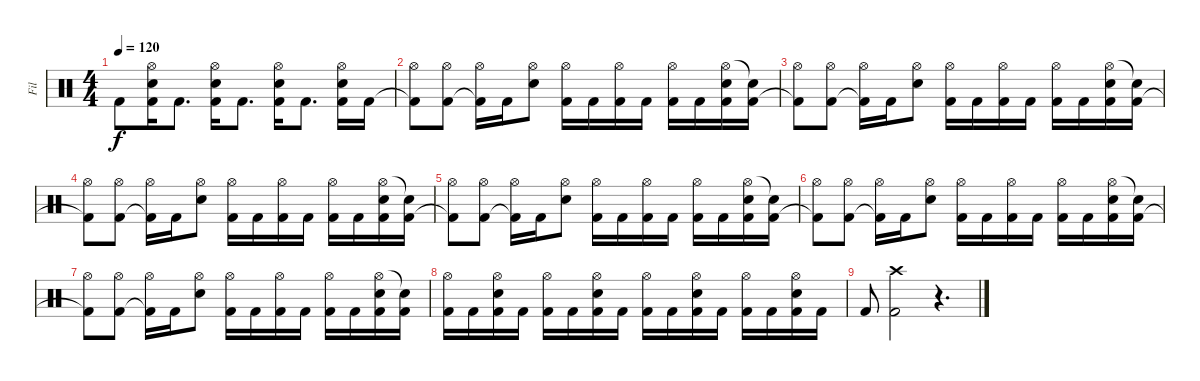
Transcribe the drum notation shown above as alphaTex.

\track ("Fil" "Fil") {instrument percussion}
\staff {score}
\articulation defaults
\ts (4 4)
\tempo 120
\clef neutral
\ks c "Kick (hit) 2".8{dy f}
("Kick (hit) 2" "Snare (hit) 2" "Hi-Hat (open)").16 "Kick (hit) 2".8{d} ("Kick (hit) 2" "Snare (hit) 2" "Hi-Hat (open)").16 "Kick (hit) 2".8{d} ("Kick (hit) 2" "Snare (hit) 2" "Hi-Hat (open)").16 "Kick (hit) 2".8{d} ("Kick (hit) 2" "Snare (hit) 2" "Hi-Hat (open)").16 "Kick (hit) 2".16 |
("Kick (hit) 2"{t} "Hi-Hat (open)").8 ("Kick (hit) 2" "Hi-Hat (open)").8 ("Kick (hit) 2"{t} "Hi-Hat (open)").16 "Kick (hit) 2".16 ("Snare (hit) 2" "Hi-Hat (open)").8 ("Kick (hit) 2" "Hi-Hat (open)").16 "Kick (hit) 2".16 ("Kick (hit) 2" "Hi-Hat (open)").16 "Kick (hit) 2".16 ("Kick (hit) 2" "Hi-Hat (open)").16 "Kick (hit) 2".16 ("Kick (hit) 2" "Hi-Hat (open)" "Snare (hit) 2").16 ("Kick (hit) 2" "Snare (hit) 2"{t}).16 |
("Kick (hit) 2"{t} "Hi-Hat (open)").8 ("Kick (hit) 2" "Hi-Hat (open)").8 ("Kick (hit) 2"{t} "Hi-Hat (open)").16 "Kick (hit) 2".16 ("Snare (hit) 2" "Hi-Hat (open)").8 ("Kick (hit) 2" "Hi-Hat (open)").16 "Kick (hit) 2".16 ("Kick (hit) 2" "Hi-Hat (open)").16 "Kick (hit) 2".16 ("Kick (hit) 2" "Hi-Hat (open)").16 "Kick (hit) 2".16 ("Kick (hit) 2" "Hi-Hat (open)" "Snare (hit) 2").16 ("Kick (hit) 2" "Snare (hit) 2"{t}).16 |
("Kick (hit) 2"{t} "Hi-Hat (open)").8 ("Kick (hit) 2" "Hi-Hat (open)").8 ("Kick (hit) 2"{t} "Hi-Hat (open)").16 "Kick (hit) 2".16 ("Snare (hit) 2" "Hi-Hat (open)").8 ("Kick (hit) 2" "Hi-Hat (open)").16 "Kick (hit) 2".16 ("Kick (hit) 2" "Hi-Hat (open)").16 "Kick (hit) 2".16 ("Kick (hit) 2" "Hi-Hat (open)").16 "Kick (hit) 2".16 ("Kick (hit) 2" "Hi-Hat (open)" "Snare (hit) 2").16 ("Kick (hit) 2" "Snare (hit) 2"{t}).16 |
("Kick (hit) 2"{t} "Hi-Hat (open)").8 ("Kick (hit) 2" "Hi-Hat (open)").8 ("Kick (hit) 2"{t} "Hi-Hat (open)").16 "Kick (hit) 2".16 ("Snare (hit) 2" "Hi-Hat (open)").8 ("Kick (hit) 2" "Hi-Hat (open)").16 "Kick (hit) 2".16 ("Kick (hit) 2" "Hi-Hat (open)").16 "Kick (hit) 2".16 ("Kick (hit) 2" "Hi-Hat (open)").16 "Kick (hit) 2".16 ("Kick (hit) 2" "Hi-Hat (open)" "Snare (hit) 2").16 ("Kick (hit) 2" "Snare (hit) 2"{t}).16 |
("Kick (hit) 2"{t} "Hi-Hat (open)").8 ("Kick (hit) 2" "Hi-Hat (open)").8 ("Kick (hit) 2"{t} "Hi-Hat (open)").16 "Kick (hit) 2".16 ("Snare (hit) 2" "Hi-Hat (open)").8 ("Kick (hit) 2" "Hi-Hat (open)").16 "Kick (hit) 2".16 ("Kick (hit) 2" "Hi-Hat (open)").16 "Kick (hit) 2".16 ("Kick (hit) 2" "Hi-Hat (open)").16 "Kick (hit) 2".16 ("Kick (hit) 2" "Hi-Hat (open)" "Snare (hit) 2").16 ("Kick (hit) 2" "Snare (hit) 2"{t}).16 |
("Kick (hit) 2"{t} "Hi-Hat (open)").8 ("Kick (hit) 2" "Hi-Hat (open)").8 ("Kick (hit) 2"{t} "Hi-Hat (open)").16 "Kick (hit) 2".16 ("Snare (hit) 2" "Hi-Hat (open)").8 ("Kick (hit) 2" "Hi-Hat (open)").16 "Kick (hit) 2".16 ("Kick (hit) 2" "Hi-Hat (open)").16 "Kick (hit) 2".16 ("Kick (hit) 2" "Hi-Hat (open)").16 "Kick (hit) 2".16 ("Kick (hit) 2" "Hi-Hat (open)" "Snare (hit) 2").16 ("Kick (hit) 2" "Snare (hit) 2"{t}).16 |
("Kick (hit) 2" "Hi-Hat (open)").16 "Kick (hit) 2".16 ("Kick (hit) 2" "Snare (hit) 2" "Hi-Hat (open)").16 "Kick (hit) 2".16 ("Kick (hit) 2" "Hi-Hat (open)").16 "Kick (hit) 2".16 ("Kick (hit) 2" "Snare (hit) 2" "Hi-Hat (open)").16 "Kick (hit) 2".16 ("Kick (hit) 2" "Hi-Hat (open)").16 "Kick (hit) 2".16 ("Kick (hit) 2" "Snare (hit) 2" "Hi-Hat (open)").16 "Kick (hit) 2".16 ("Kick (hit) 2" "Hi-Hat (open)").16 "Kick (hit) 2".16 ("Kick (hit) 2" "Snare (hit) 2" "Hi-Hat (open)").16 "Kick (hit) 2".16 |
"Kick (hit) 2".8 ("Kick (hit) 2" "Crash high (hit)").2 r.4{d}
